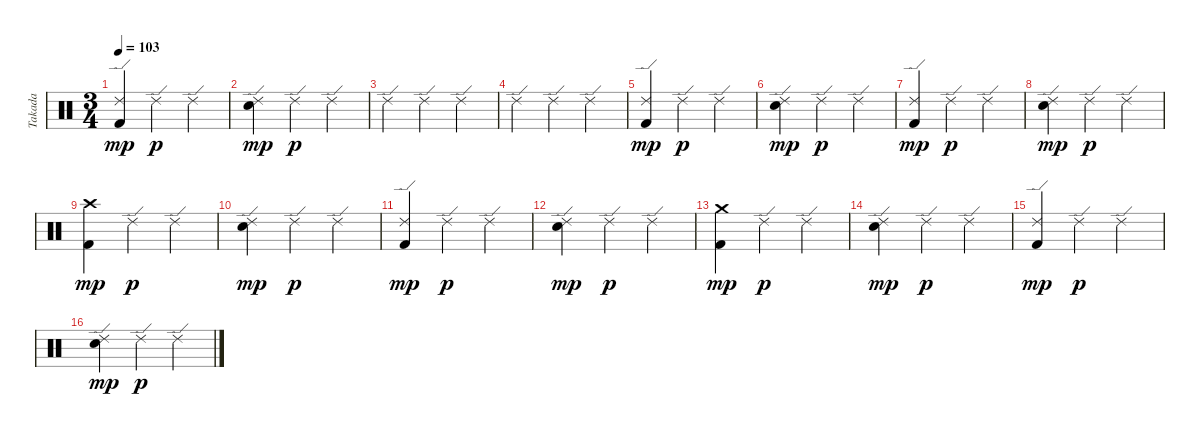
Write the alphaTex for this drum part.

\track ("Takada" "Takada") {instrument percussion}
\staff {score}
\articulation defaults
\ts (3 4)
\tempo 103
\clef neutral
\ks c
("Ride (edge) 2" "Kick (hit) 2").4{dy mp} "Ride (edge) 2".4{dy p} "Ride (edge) 2".4 |
("Ride (edge) 2" "Electric Snare (hit)").4{dy mp} "Ride (edge) 2".4{dy p} "Ride (edge) 2".4 |
"Ride (edge) 2".4 "Ride (edge) 2".4 "Ride (edge) 2".4 |
"Ride (edge) 2".4 "Ride (edge) 2".4 "Ride (edge) 2".4 |
("Ride (edge) 2" "Kick (hit) 2").4{dy mp} "Ride (edge) 2".4{dy p} "Ride (edge) 2".4 |
("Ride (edge) 2" "Electric Snare (hit)").4{dy mp} "Ride (edge) 2".4{dy p} "Ride (edge) 2".4 |
("Ride (edge) 2" "Kick (hit) 2").4{dy mp} "Ride (edge) 2".4{dy p} "Ride (edge) 2".4 |
("Ride (edge) 2" "Electric Snare (hit)").4{dy mp} "Ride (edge) 2".4{dy p} "Ride (edge) 2".4 |
("Crash high (hit)" "Kick (hit) 2").4{dy mp} "Ride (edge) 2".4{dy p} "Ride (edge) 2".4 |
("Ride (edge) 2" "Electric Snare (hit)").4{dy mp} "Ride (edge) 2".4{dy p} "Ride (edge) 2".4 |
("Ride (edge) 2" "Kick (hit) 2").4{dy mp} "Ride (edge) 2".4{dy p} "Ride (edge) 2".4 |
("Ride (edge) 2" "Electric Snare (hit)").4{dy mp} "Ride (edge) 2".4{dy p} "Ride (edge) 2".4 |
("Crash medium (hit)" "Kick (hit) 2").4{dy mp} "Ride (edge) 2".4{dy p} "Ride (edge) 2".4 |
("Ride (edge) 2" "Electric Snare (hit)").4{dy mp} "Ride (edge) 2".4{dy p} "Ride (edge) 2".4 |
("Ride (edge) 2" "Kick (hit) 2").4{dy mp} "Ride (edge) 2".4{dy p} "Ride (edge) 2".4 |
("Ride (edge) 2" "Electric Snare (hit)").4{dy mp} "Ride (edge) 2".4{dy p} "Ride (edge) 2".4
